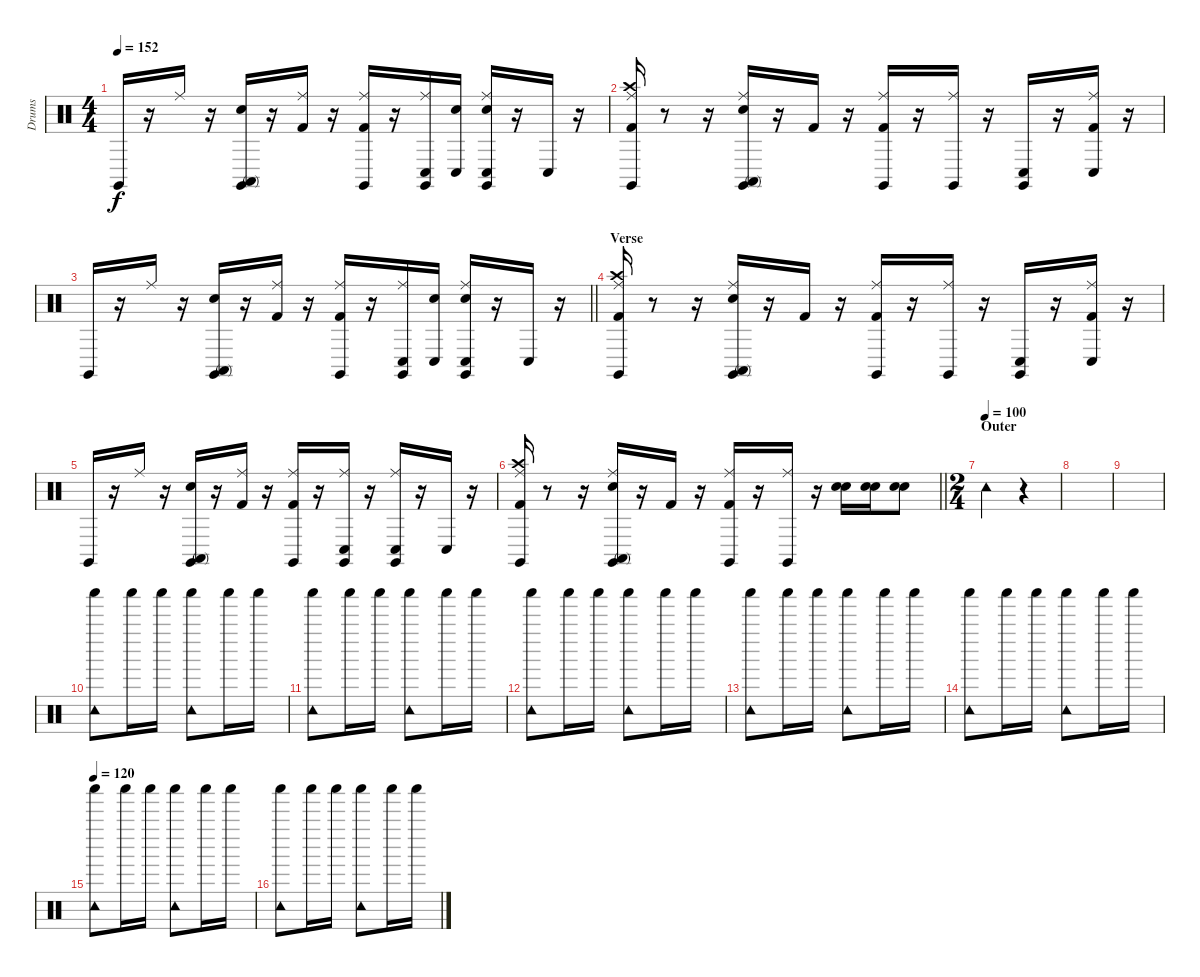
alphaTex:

\track ("Drums" "Drums") {instrument percussion}
\staff {score}
\articulation defaults
\ts (4 4)
\tempo 152
\clef neutral
\ks c "Claves (hit)".16{dy f}
r.16 "Ride (middle)".16 r.16 ("Snare (hit) 2" "Conga high (mute)" "Claves (hit)").16 r.16 ("Kick (hit) 2" "Ride (middle)").16 r.16 ("Kick (hit) 2" "Ride (middle)" "Claves (hit)").16 r.16 ("Ride (middle)" "Conga low (hit)" "Claves (hit)").16 ("Snare (hit)" "Conga low (hit)").16 ("Snare (hit)" "Ride (middle)" "Conga low (hit)" "Claves (hit)").16 r.16 "Conga low (hit)".16 r.16 |
("Kick (hit) 2" "Crash high (hit)" "Ride (middle)" "Claves (hit)").16 r.8 r.16 ("Snare (hit) 2" "Ride (middle)" "Conga high (mute)" "Claves (hit)").16 r.16 "Kick (hit) 2".16 r.16 ("Kick (hit) 2" "Ride (middle)" "Claves (hit)").16 r.16 ("Ride (middle)" "Claves (hit)").16 r.16 ("Conga low (hit)" "Claves (hit)").16 r.16 ("Kick (hit) 2" "Ride (middle)" "Conga low (hit)").16 r.16 |
\barLineRight lightlight "Claves (hit)".16
r.16 "Ride (middle)".16 r.16 ("Snare (hit) 2" "Conga high (mute)" "Claves (hit)").16 r.16 ("Kick (hit) 2" "Ride (middle)").16 r.16 ("Kick (hit) 2" "Ride (middle)" "Claves (hit)").16 r.16 ("Ride (middle)" "Conga low (hit)" "Claves (hit)").16 ("Snare (hit)" "Conga low (hit)").16 ("Snare (hit)" "Ride (middle)" "Conga low (hit)" "Claves (hit)").16 r.16 "Conga low (hit)".16 r.16 |
\section ("" "Verse")
("Kick (hit) 2" "Crash high (hit)" "Ride (middle)" "Claves (hit)").16 r.8 r.16 ("Snare (hit) 2" "Ride (middle)" "Conga high (mute)" "Claves (hit)").16 r.16 "Kick (hit) 2".16 r.16 ("Kick (hit) 2" "Ride (middle)" "Claves (hit)").16 r.16 ("Ride (middle)" "Claves (hit)").16 r.16 ("Conga low (hit)" "Claves (hit)").16 r.16 ("Kick (hit) 2" "Ride (middle)" "Conga low (hit)").16 r.16 |
"Claves (hit)".16 r.16 "Ride (middle)".16 r.16 ("Snare (hit) 2" "Conga high (mute)" "Claves (hit)").16 r.16 ("Kick (hit) 2" "Ride (middle)").16 r.16 ("Kick (hit) 2" "Ride (middle)" "Claves (hit)").16 r.16 ("Ride (middle)" "Conga low (hit)" "Claves (hit)").16 r.16 ("Ride (middle)" "Conga low (hit)" "Claves (hit)").16 r.16 "Conga low (hit)".16 r.16 |
\barLineRight lightlight
("Kick (hit) 2" "Crash high (hit)" "Ride (middle)" "Claves (hit)").16 r.8 r.16 ("Snare (hit) 2" "Ride (middle)" "Conga high (mute)" "Claves (hit)").16 r.16 "Kick (hit) 2".16 r.16 ("Kick (hit) 2" "Ride (middle)" "Claves (hit)").16 r.16 ("Ride (middle)" "Claves (hit)").16 r.16 ("Snare (hit)" "Snare (hit) 2").16 ("Snare (hit)" "Snare (hit) 2").16 ("Snare (hit)" "Snare (hit) 2").8 |
\ts (2 4)
\section ("" "Outer")
\tempo (100)
"Tambourine (hit)".4{volume 5} r.4 |
|
|
("Shaker (hit)" "Tambourine (hit)").8 "Shaker (hit)".16 "Shaker (hit)".16 ("Shaker (hit)" "Tambourine (hit)").8 "Shaker (hit)".16 "Shaker (hit)".16 |
("Shaker (hit)" "Tambourine (hit)").8 "Shaker (hit)".16 "Shaker (hit)".16 ("Shaker (hit)" "Tambourine (hit)").8 "Shaker (hit)".16 "Shaker (hit)".16 |
("Shaker (hit)" "Tambourine (hit)").8 "Shaker (hit)".16 "Shaker (hit)".16 ("Shaker (hit)" "Tambourine (hit)").8 "Shaker (hit)".16 "Shaker (hit)".16 |
("Shaker (hit)" "Tambourine (hit)").8 "Shaker (hit)".16 "Shaker (hit)".16 ("Shaker (hit)" "Tambourine (hit)").8 "Shaker (hit)".16 "Shaker (hit)".16 |
("Shaker (hit)" "Tambourine (hit)").8 "Shaker (hit)".16 "Shaker (hit)".16 ("Shaker (hit)" "Tambourine (hit)").8 "Shaker (hit)".16 "Shaker (hit)".16 |
\tempo 120
("Shaker (hit)" "Tambourine (hit)").8 "Shaker (hit)".16 "Shaker (hit)".16 ("Shaker (hit)" "Tambourine (hit)").8 "Shaker (hit)".16 "Shaker (hit)".16 |
("Shaker (hit)" "Tambourine (hit)").8 "Shaker (hit)".16 "Shaker (hit)".16 ("Shaker (hit)" "Tambourine (hit)").8 "Shaker (hit)".16 "Shaker (hit)".16
